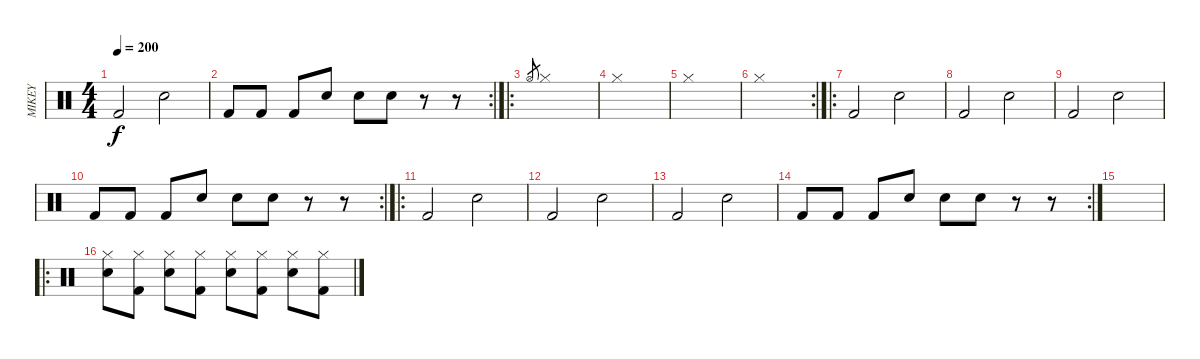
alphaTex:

\track ("MIKEY" "MIKEY") {instrument percussion}
\staff {score}
\articulation defaults
\ts (4 4)
\tempo 200
\clef neutral
\ks c "Kick (hit) 2".2{dy f} "Electric Snare (hit)".2
|
\rc 2 "Kick (hit) 2".8 "Kick (hit) 2".8 "Kick (hit) 2".8 "Electric Snare (hit)".8 "Electric Snare (hit)".8 "Electric Snare (hit)".8
r.8 r.8 |
\ro "Hi-Hat (open)".8{gr} "Hi-Hat (closed)".1
|
"Hi-Hat (closed)".1 |
"Hi-Hat (closed)".1 |
\rc 2 "Hi-Hat (closed)".1
|
\ro "Kick (hit) 2".2 "Electric Snare (hit)".2
|
"Kick (hit) 2".2 "Electric Snare (hit)".2 |
"Kick (hit) 2".2 "Electric Snare (hit)".2 |
\rc 2 "Kick (hit) 2".8 "Kick (hit) 2".8 "Kick (hit) 2".8 "Electric Snare (hit)".8 "Electric Snare (hit)".8 "Electric Snare (hit)".8
r.8 r.8 |
\ro "Kick (hit) 2".2 "Electric Snare (hit)".2
|
"Kick (hit) 2".2 "Electric Snare (hit)".2 |
"Kick (hit) 2".2 "Electric Snare (hit)".2 |
\rc 2 "Kick (hit) 2".8 "Kick (hit) 2".8 "Kick (hit) 2".8 "Electric Snare (hit)".8 "Electric Snare (hit)".8 "Electric Snare (hit)".8
r.8 r.8 |
|
\ro
("Hi-Hat (closed)" "Electric Snare (hit)").8 ("Hi-Hat (closed)" "Kick (hit) 2").8 ("Hi-Hat (closed)" "Electric Snare (hit)").8 ("Hi-Hat (closed)" "Kick (hit) 2").8 ("Hi-Hat (closed)" "Electric Snare (hit)").8 ("Hi-Hat (closed)" "Kick (hit) 2").8 ("Hi-Hat (closed)" "Electric Snare (hit)").8 ("Hi-Hat (closed)" "Kick (hit) 2").8
